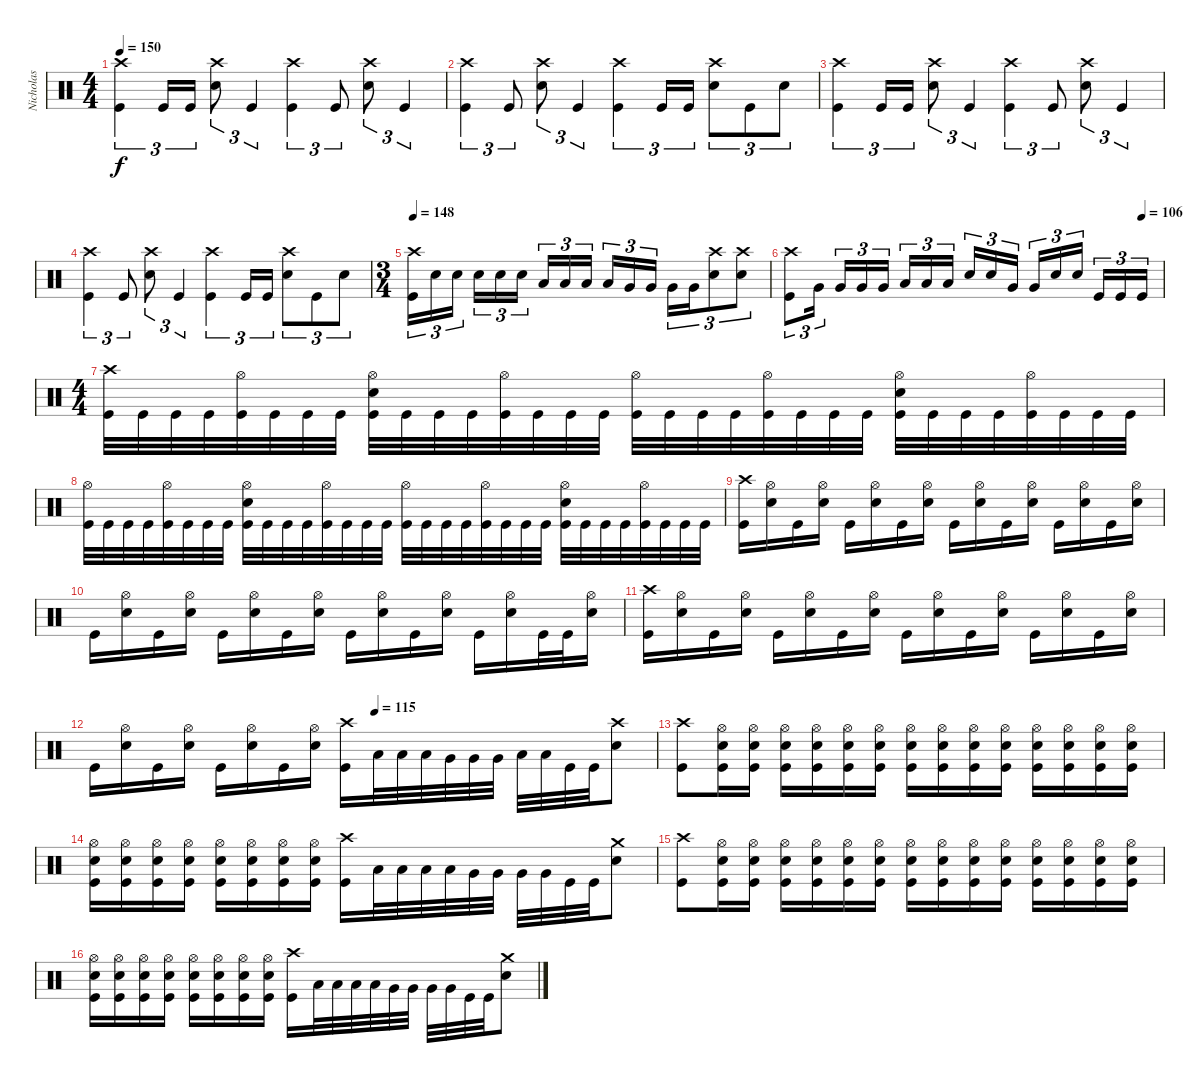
\track ("Nicholas" "Nicholas") {instrument percussion}
\staff {score}
\articulation defaults
\ts (4 4)
\tempo 150
\clef neutral
\ks c
("Crash high (hit)" "Kick (hit)").4{tu (3 2) dy f} "Kick (hit)".16{tu (3 2)} "Kick (hit)".16{tu (3 2)} ("Crash high (hit)" "Electric Snare (hit)").8{tu (3 2)} "Kick (hit)".4{tu (3 2)} ("Crash high (hit)" "Kick (hit)").4{tu (3 2)} "Kick (hit)".8{tu (3 2)} ("Crash high (hit)" "Electric Snare (hit)").8{tu (3 2)} "Kick (hit)".4{tu (3 2)} |
("Crash high (hit)" "Kick (hit)").4{tu (3 2)} "Kick (hit)".8{tu (3 2)} ("Crash high (hit)" "Electric Snare (hit)").8{tu (3 2)} "Kick (hit)".4{tu (3 2)} ("Crash high (hit)" "Kick (hit)").4{tu (3 2)} "Kick (hit)".16{tu (3 2)} "Kick (hit)".16{tu (3 2)} ("Crash high (hit)" "Electric Snare (hit)").8{tu (3 2)} "Kick (hit)".8{tu (3 2)} "Electric Snare (hit)".8{tu (3 2)} |
("Crash high (hit)" "Kick (hit)").4{tu (3 2)} "Kick (hit)".16{tu (3 2)} "Kick (hit)".16{tu (3 2)} ("Crash high (hit)" "Electric Snare (hit)").8{tu (3 2)} "Kick (hit)".4{tu (3 2)} ("Crash high (hit)" "Kick (hit)").4{tu (3 2)} "Kick (hit)".8{tu (3 2)} ("Crash high (hit)" "Electric Snare (hit)").8{tu (3 2)} "Kick (hit)".4{tu (3 2)} |
("Crash high (hit)" "Kick (hit)").4{tu (3 2)} "Kick (hit)".8{tu (3 2)} ("Crash high (hit)" "Electric Snare (hit)").8{tu (3 2)} "Kick (hit)".4{tu (3 2)} ("Crash high (hit)" "Kick (hit)").4{tu (3 2)} "Kick (hit)".16{tu (3 2)} "Kick (hit)".16{tu (3 2)} ("Crash high (hit)" "Electric Snare (hit)").8{tu (3 2)} "Kick (hit)".8{tu (3 2)} "Electric Snare (hit)".8{tu (3 2)} |
\ts (3 4)
\tempo 148
("Crash high (hit)" "Kick (hit)").16{tu (3 2)} "Electric Snare (hit)".16{tu (3 2)} "Electric Snare (hit)".16{tu (3 2)} "Electric Snare (hit)".16{tu (3 2)} "Electric Snare (hit)".16{tu (3 2)} "Electric Snare (hit)".16{tu (3 2)} "Low Tom (hit)".16{tu (3 2)} "Low Tom (hit)".16{tu (3 2)} "Low Tom (hit)".16{tu (3 2)} "Low Tom (hit)".16{tu (3 2)} "Very Low Tom (hit)".16{tu (3 2)} "Very Low Tom (hit)".16{tu (3 2)} "Very Low Tom (hit)".16{tu (3 2)} "Very Low Tom (hit)".16{tu (3 2)} ("Crash high (hit)" "Electric Snare (hit)").8{tu (3 2)} ("Crash high (hit)" "Electric Snare (hit)").8{tu (3 2)} |
\tempo (106 0.9444444444444444)
("Crash high (hit)" "Kick (hit)").8{tu (3 2)} "Very Low Tom (hit)".16{tu (3 2)} "Very Low Tom (hit)".16{tu (3 2)} "Very Low Tom (hit)".16{tu (3 2)} "Very Low Tom (hit)".16{tu (3 2)} "Low Floor Tom (hit)".16{tu (3 2)} "Low Floor Tom (hit)".16{tu (3 2)} "Low Floor Tom (hit)".16{tu (3 2)} "Electric Snare (hit)".16{tu (3 2)} "Electric Snare (hit)".16{tu (3 2)} "Very Low Tom (hit)".16{tu (3 2)} "Very Low Tom (hit)".16{tu (3 2)} "Electric Snare (hit)".16{tu (3 2)} "Electric Snare (hit)".16{tu (3 2)} "Kick (hit)".16{tu (3 2)} "Kick (hit)".16{tu (3 2)} "Kick (hit)".16{tu (3 2)} |
\ts (4 4)
("Crash high (hit)" "Kick (hit)").32 "Kick (hit)".32 "Kick (hit)".32 "Kick (hit)".32 ("Hi-Hat (open)" "Kick (hit)").32 "Kick (hit)".32 "Kick (hit)".32 "Kick (hit)".32 ("Hi-Hat (open)" "Electric Snare (hit)" "Kick (hit)").32 "Kick (hit)".32 "Kick (hit)".32 "Kick (hit)".32 ("Hi-Hat (open)" "Kick (hit)").32 "Kick (hit)".32 "Kick (hit)".32 "Kick (hit)".32 ("Hi-Hat (open)" "Kick (hit)").32 "Kick (hit)".32 "Kick (hit)".32 "Kick (hit)".32 ("Hi-Hat (open)" "Kick (hit)").32 "Kick (hit)".32 "Kick (hit)".32 "Kick (hit)".32 ("Hi-Hat (open)" "Electric Snare (hit)" "Kick (hit)").32 "Kick (hit)".32 "Kick (hit)".32 "Kick (hit)".32 ("Hi-Hat (open)" "Kick (hit)").32 "Kick (hit)".32 "Kick (hit)".32 "Kick (hit)".32 |
("Hi-Hat (open)" "Kick (hit)").32 "Kick (hit)".32 "Kick (hit)".32 "Kick (hit)".32 ("Hi-Hat (open)" "Kick (hit)").32 "Kick (hit)".32 "Kick (hit)".32 "Kick (hit)".32 ("Hi-Hat (open)" "Electric Snare (hit)" "Kick (hit)").32 "Kick (hit)".32 "Kick (hit)".32 "Kick (hit)".32 ("Hi-Hat (open)" "Kick (hit)").32 "Kick (hit)".32 "Kick (hit)".32 "Kick (hit)".32 ("Hi-Hat (open)" "Kick (hit)").32 "Kick (hit)".32 "Kick (hit)".32 "Kick (hit)".32 ("Hi-Hat (open)" "Kick (hit)").32 "Kick (hit)".32 "Kick (hit)".32 "Kick (hit)".32 ("Hi-Hat (open)" "Electric Snare (hit)" "Kick (hit)").32 "Kick (hit)".32 "Kick (hit)".32 "Kick (hit)".32 ("Hi-Hat (open)" "Kick (hit)").32 "Kick (hit)".32 "Kick (hit)".32 "Kick (hit)".32 |
("Crash high (hit)" "Kick (hit)").16 ("Hi-Hat (open)" "Electric Snare (hit)").16 "Kick (hit)".16 ("Hi-Hat (open)" "Electric Snare (hit)").16 "Kick (hit)".16 ("Hi-Hat (open)" "Electric Snare (hit)").16 "Kick (hit)".16 ("Hi-Hat (open)" "Electric Snare (hit)").16 "Kick (hit)".16 ("Hi-Hat (open)" "Electric Snare (hit)").16 "Kick (hit)".16 ("Hi-Hat (open)" "Electric Snare (hit)").16 "Kick (hit)".16 ("Hi-Hat (open)" "Electric Snare (hit)").16 "Kick (hit)".16 ("Hi-Hat (open)" "Electric Snare (hit)").16 |
"Kick (hit)".16 ("Hi-Hat (open)" "Electric Snare (hit)").16 "Kick (hit)".16 ("Hi-Hat (open)" "Electric Snare (hit)").16 "Kick (hit)".16 ("Hi-Hat (open)" "Electric Snare (hit)").16 "Kick (hit)".16 ("Hi-Hat (open)" "Electric Snare (hit)").16 "Kick (hit)".16 ("Hi-Hat (open)" "Electric Snare (hit)").16 "Kick (hit)".16 ("Hi-Hat (open)" "Electric Snare (hit)").16 "Kick (hit)".16 ("Hi-Hat (open)" "Electric Snare (hit)").16 "Kick (hit)".32 "Kick (hit)".32 ("Hi-Hat (open)" "Electric Snare (hit)").16 |
("Crash high (hit)" "Kick (hit)").16 ("Hi-Hat (open)" "Electric Snare (hit)").16 "Kick (hit)".16 ("Hi-Hat (open)" "Electric Snare (hit)").16 "Kick (hit)".16 ("Hi-Hat (open)" "Electric Snare (hit)").16 "Kick (hit)".16 ("Hi-Hat (open)" "Electric Snare (hit)").16 "Kick (hit)".16 ("Hi-Hat (open)" "Electric Snare (hit)").16 "Kick (hit)".16 ("Hi-Hat (open)" "Electric Snare (hit)").16 "Kick (hit)".16 ("Hi-Hat (open)" "Electric Snare (hit)").16 "Kick (hit)".16 ("Hi-Hat (open)" "Electric Snare (hit)").16 |
\tempo (115 0.5)
"Kick (hit)".16 ("Hi-Hat (open)" "Electric Snare (hit)").16 "Kick (hit)".16 ("Hi-Hat (open)" "Electric Snare (hit)").16 "Kick (hit)".16 ("Hi-Hat (open)" "Electric Snare (hit)").16 "Kick (hit)".16 ("Hi-Hat (open)" "Electric Snare (hit)").16 ("Crash high (hit)" "Kick (hit)").16 "Low Tom (hit)".32 "Low Tom (hit)".32 "Low Tom (hit)".32 "Very Low Tom (hit)".32 "Very Low Tom (hit)".32 "Very Low Tom (hit)".32 "Low Floor Tom (hit)".32 "Low Floor Tom (hit)".32 "Kick (hit)".32 "Kick (hit)".32 ("Crash high (hit)" "Electric Snare (hit)").8 |
("Crash high (hit)" "Kick (hit)").8 ("Hi-Hat (open)" "Electric Snare (hit)" "Kick (hit)").16 ("Hi-Hat (open)" "Electric Snare (hit)" "Kick (hit)").16 ("Hi-Hat (open)" "Electric Snare (hit)" "Kick (hit)").16 ("Hi-Hat (open)" "Electric Snare (hit)" "Kick (hit)").16 ("Hi-Hat (open)" "Electric Snare (hit)" "Kick (hit)").16 ("Hi-Hat (open)" "Electric Snare (hit)" "Kick (hit)").16 ("Hi-Hat (open)" "Electric Snare (hit)" "Kick (hit)").16 ("Hi-Hat (open)" "Electric Snare (hit)" "Kick (hit)").16 ("Hi-Hat (open)" "Electric Snare (hit)" "Kick (hit)").16 ("Hi-Hat (open)" "Electric Snare (hit)" "Kick (hit)").16 ("Hi-Hat (open)" "Electric Snare (hit)" "Kick (hit)").16 ("Hi-Hat (open)" "Electric Snare (hit)" "Kick (hit)").16 ("Hi-Hat (open)" "Electric Snare (hit)" "Kick (hit)").16 ("Hi-Hat (open)" "Electric Snare (hit)" "Kick (hit)").16 |
("Hi-Hat (open)" "Electric Snare (hit)" "Kick (hit)").16 ("Hi-Hat (open)" "Electric Snare (hit)" "Kick (hit)").16 ("Hi-Hat (open)" "Electric Snare (hit)" "Kick (hit)").16 ("Hi-Hat (open)" "Electric Snare (hit)" "Kick (hit)").16 ("Hi-Hat (open)" "Electric Snare (hit)" "Kick (hit)").16 ("Hi-Hat (open)" "Electric Snare (hit)" "Kick (hit)").16 ("Hi-Hat (open)" "Electric Snare (hit)" "Kick (hit)").16 ("Hi-Hat (open)" "Electric Snare (hit)" "Kick (hit)").16 ("Crash high (hit)" "Kick (hit)").16 "Low Tom (hit)".32 "Low Tom (hit)".32 "Low Tom (hit)".32 "Low Tom (hit)".32 "Very Low Tom (hit)".32 "Very Low Tom (hit)".32 "Very Low Tom (hit)".32 "Very Low Tom (hit)".32 "Kick (hit)".32 "Kick (hit)".32 ("Crash medium (hit)" "Electric Snare (hit)").8 |
("Crash high (hit)" "Kick (hit)").8 ("Hi-Hat (open)" "Electric Snare (hit)" "Kick (hit)").16 ("Hi-Hat (open)" "Electric Snare (hit)" "Kick (hit)").16 ("Hi-Hat (open)" "Electric Snare (hit)" "Kick (hit)").16 ("Hi-Hat (open)" "Electric Snare (hit)" "Kick (hit)").16 ("Hi-Hat (open)" "Electric Snare (hit)" "Kick (hit)").16 ("Hi-Hat (open)" "Electric Snare (hit)" "Kick (hit)").16 ("Hi-Hat (open)" "Electric Snare (hit)" "Kick (hit)").16 ("Hi-Hat (open)" "Electric Snare (hit)" "Kick (hit)").16 ("Hi-Hat (open)" "Electric Snare (hit)" "Kick (hit)").16 ("Hi-Hat (open)" "Electric Snare (hit)" "Kick (hit)").16 ("Hi-Hat (open)" "Electric Snare (hit)" "Kick (hit)").16 ("Hi-Hat (open)" "Electric Snare (hit)" "Kick (hit)").16 ("Hi-Hat (open)" "Electric Snare (hit)" "Kick (hit)").16 ("Hi-Hat (open)" "Electric Snare (hit)" "Kick (hit)").16 |
("Hi-Hat (open)" "Electric Snare (hit)" "Kick (hit)").16 ("Hi-Hat (open)" "Electric Snare (hit)" "Kick (hit)").16 ("Hi-Hat (open)" "Electric Snare (hit)" "Kick (hit)").16 ("Hi-Hat (open)" "Electric Snare (hit)" "Kick (hit)").16 ("Hi-Hat (open)" "Electric Snare (hit)" "Kick (hit)").16 ("Hi-Hat (open)" "Electric Snare (hit)" "Kick (hit)").16 ("Hi-Hat (open)" "Electric Snare (hit)" "Kick (hit)").16 ("Hi-Hat (open)" "Electric Snare (hit)" "Kick (hit)").16 ("Crash high (hit)" "Kick (hit)").16 "Low Floor Tom (hit)".32 "Low Floor Tom (hit)".32 "Low Floor Tom (hit)".32 "Low Floor Tom (hit)".32 "Very Low Tom (hit)".32 "Very Low Tom (hit)".32 "Very Low Tom (hit)".32 "Very Low Tom (hit)".32 "Kick (hit)".32 "Kick (hit)".32 ("Crash medium (hit)" "Electric Snare (hit)").8
